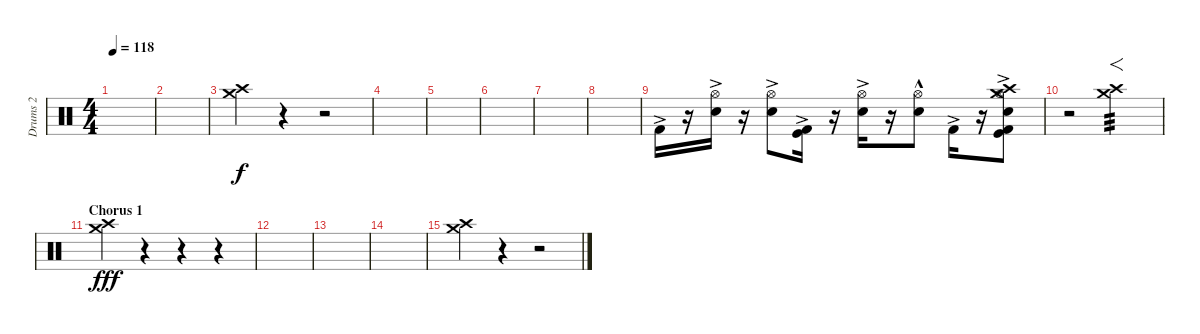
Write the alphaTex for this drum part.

\track ("Drums 2" "Drums 2") {instrument percussion}
\staff {score}
\articulation defaults
\ts (4 4)
\tempo 118
\clef neutral
\ks c
|
|
("Crash high (hit)" "Crash medium (hit)").4 r.4 r.2 |
|
|
|
|
|
"Kick (hit) 2"{ac}.16 r.16 ("Hi-Hat (open)"{ac} "Electric Snare (hit)"{ac}).16 r.16 ("Hi-Hat (open)"{ac} "Electric Snare (hit)"{ac}).8 ("Kick (hit) 2"{ac} "Kick (hit)").16 r.16 ("Hi-Hat (open)" "Electric Snare (hit)"{ac}).16 r.16 ("Hi-Hat (open)" "Electric Snare (hit)"{hac}).8 "Kick (hit) 2"{ac}.16 r.16 ("Hi-Hat (open)"{ac} "Electric Snare (hit)"{ac} "Kick (hit) 2" "Kick (hit)" "Crash high (hit)" "Crash medium (hit)").8 |
r.2{volume 16} ("Crash medium (hit)" "Crash high (hit)").2{f tp 3 dy f} |
\section ("" "Chorus 1")
("Crash medium (hit)" "Crash high (hit)").4{dy fff volume 12} r.4 r.4 r.4 |
|
|
|
("Crash high (hit)" "Crash medium (hit)").4 r.4 r.2
